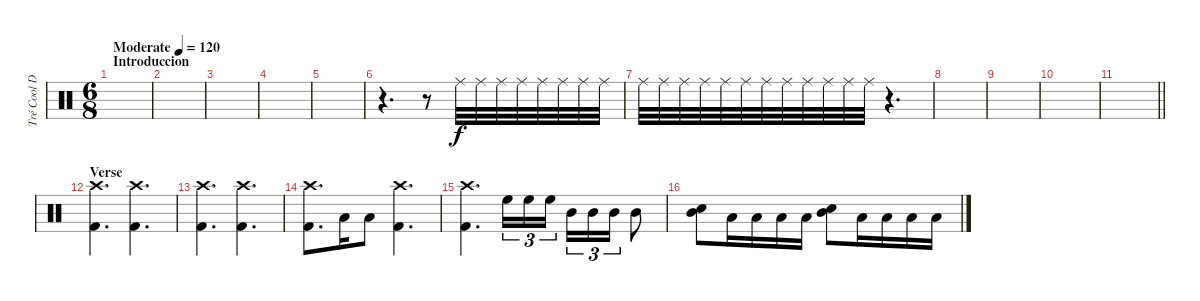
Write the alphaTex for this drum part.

\track ("Tré Cool Drums" "Tré Cool D") {instrument percussion}
\staff {score}
\articulation defaults
\ts (6 8)
\section ("" "Introduccion")
\tempo (120 "Moderate")
\clef neutral
\ks c
|
|
|
|
|
r.4{d} r.8 "Ride (middle)".32 "Ride (middle)".32 "Ride (middle)".32 "Ride (middle)".32 "Ride (middle)".32 "Ride (middle)".32 "Ride (middle)".32 "Ride (middle)".32 |
"Ride (middle)".32 "Ride (middle)".32 "Ride (middle)".32 "Ride (middle)".32 "Ride (middle)".32 "Ride (middle)".32 "Ride (middle)".32 "Ride (middle)".32 "Ride (middle)".32 "Ride (middle)".32 "Ride (middle)".32 "Ride (middle)".32 r.4{d} |
|
|
|
\barLineRight lightlight
|
\section ("" "Verse")
("Crash high (hit)" "Kick (hit) 2").4{d} ("Crash high (hit)" "Kick (hit) 2").4{d} |
("Crash high (hit)" "Kick (hit) 2").4{d} ("Crash high (hit)" "Kick (hit) 2").4{d} |
("Crash high (hit)" "Kick (hit) 2").8{d} "Low Floor Tom (hit)".16 "Low Floor Tom (hit)".8 ("Crash high (hit)" "Kick (hit) 2").4{d} |
("Crash high (hit)" "Kick (hit) 2").4{d} "High Floor Tom (hit)".16{tu (3 2)} "High Floor Tom (hit)".16{tu (3 2)} "High Floor Tom (hit)".16{tu (3 2) beam splitsecondary} "Mid Tom (hit)".16{tu (3 2)} "Mid Tom (hit)".16{tu (3 2)} "Mid Tom (hit)".16{tu (3 2)} "Mid Tom (hit)".8 |
("Snare (hit) 2" "Mid Tom (hit)").8 "Low Tom (hit)".16 "Low Tom (hit)".16 "Low Tom (hit)".16 "Low Tom (hit)".16 ("Snare (hit) 2" "Mid Tom (hit)").8 "Low Tom (hit)".16 "Low Tom (hit)".16 "Low Tom (hit)".16 "Low Tom (hit)".16
